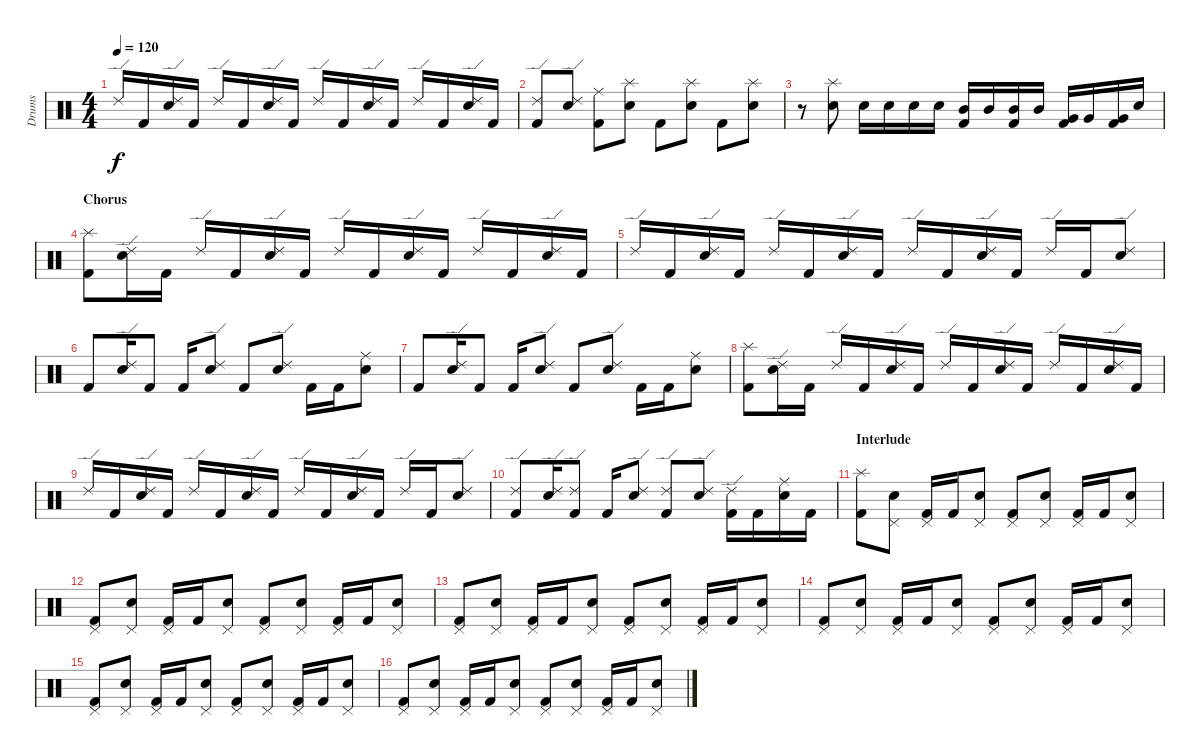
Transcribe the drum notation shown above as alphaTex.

\track ("Drums" "Drums") {instrument percussion}
\staff {score}
\articulation defaults
\ts (4 4)
\tempo 120
\clef neutral
\ks c "Ride (edge) 2".16{dy f} "Kick (hit) 2".16
("Ride (edge) 2" "Electric Snare (hit)").16 "Kick (hit) 2".16 "Ride (edge) 2".16 "Kick (hit) 2".16 ("Ride (edge) 2" "Electric Snare (hit)").16 "Kick (hit) 2".16 "Ride (edge) 2".16 "Kick (hit) 2".16 ("Ride (edge) 2" "Electric Snare (hit)").16 "Kick (hit) 2".16 "Ride (edge) 2".16 "Kick (hit) 2".16 ("Ride (edge) 2" "Electric Snare (hit)").16 "Kick (hit) 2".16 |
("Ride (edge) 2" "Kick (hit) 2").8 ("Ride (edge) 2" "Electric Snare (hit)").8 ("Ride (middle)" "Kick (hit) 2").8 ("Splash (hit)" "Electric Snare (hit)").8 "Kick (hit) 2".8 ("Splash (hit)" "Electric Snare (hit)").8 "Kick (hit) 2".8 ("Splash (hit)" "Electric Snare (hit)").8 |
r.8 ("Splash (hit)" "Electric Snare (hit)").8 "Electric Snare (hit)".16 "Electric Snare (hit)".16 "Electric Snare (hit)".16 "Electric Snare (hit)".16 ("Mid Tom (hit)" "Kick (hit) 2").16 "Mid Tom (hit)".16 ("Mid Tom (hit)" "Kick (hit) 2").16 "Mid Tom (hit)".16 ("Very Low Tom (hit)" "Kick (hit) 2").16 "Very Low Tom (hit)".16 ("Very Low Tom (hit)" "Kick (hit) 2").16 "Electric Snare (hit)".16 |
\section ("" "Chorus")
("Splash (hit)" "Kick (hit) 2").8 ("Ride (edge) 2" "Electric Snare (hit)").16 "Kick (hit) 2".16 "Ride (edge) 2".16 "Kick (hit) 2".16 ("Ride (edge) 2" "Electric Snare (hit)").16 "Kick (hit) 2".16 "Ride (edge) 2".16 "Kick (hit) 2".16 ("Ride (edge) 2" "Electric Snare (hit)").16 "Kick (hit) 2".16 "Ride (edge) 2".16 "Kick (hit) 2".16 ("Ride (edge) 2" "Electric Snare (hit)").16 "Kick (hit) 2".16 |
"Ride (edge) 2".16 "Kick (hit) 2".16 ("Ride (edge) 2" "Electric Snare (hit)").16 "Kick (hit) 2".16 "Ride (edge) 2".16 "Kick (hit) 2".16 ("Ride (edge) 2" "Electric Snare (hit)").16 "Kick (hit) 2".16 "Ride (edge) 2".16 "Kick (hit) 2".16 ("Ride (edge) 2" "Electric Snare (hit)").16 "Kick (hit) 2".16 "Ride (edge) 2".16 "Kick (hit) 2".16 ("Ride (edge) 2" "Electric Snare (hit)").8 |
"Kick (hit) 2".8 ("Ride (edge) 2" "Electric Snare (hit)").16 "Kick (hit) 2".8 "Kick (hit) 2".16 ("Ride (edge) 2" "Electric Snare (hit)").8 "Kick (hit) 2".8 ("Ride (edge) 2" "Electric Snare (hit)").8 "Kick (hit) 2".16 "Kick (hit) 2".16 ("Ride (middle)" "Electric Snare (hit)").8 |
"Kick (hit) 2".8 ("Ride (edge) 2" "Electric Snare (hit)").16 "Kick (hit) 2".8 "Kick (hit) 2".16 ("Ride (edge) 2" "Electric Snare (hit)").8 "Kick (hit) 2".8 ("Ride (edge) 2" "Electric Snare (hit)").8 "Kick (hit) 2".16 "Kick (hit) 2".16 ("Ride (middle)" "Electric Snare (hit)").8 |
("Splash (hit)" "Kick (hit) 2").8 ("Ride (edge) 2" "Electric Snare (hit)").16 "Kick (hit) 2".16 "Ride (edge) 2".16 "Kick (hit) 2".16 ("Ride (edge) 2" "Electric Snare (hit)").16 "Kick (hit) 2".16 "Ride (edge) 2".16 "Kick (hit) 2".16 ("Ride (edge) 2" "Electric Snare (hit)").16 "Kick (hit) 2".16 "Ride (edge) 2".16 "Kick (hit) 2".16 ("Ride (edge) 2" "Electric Snare (hit)").16 "Kick (hit) 2".16 |
"Ride (edge) 2".16 "Kick (hit) 2".16 ("Ride (edge) 2" "Electric Snare (hit)").16 "Kick (hit) 2".16 "Ride (edge) 2".16 "Kick (hit) 2".16 ("Ride (edge) 2" "Electric Snare (hit)").16 "Kick (hit) 2".16 "Ride (edge) 2".16 "Kick (hit) 2".16 ("Ride (edge) 2" "Electric Snare (hit)").16 "Kick (hit) 2".16 "Ride (edge) 2".16 "Kick (hit) 2".16 ("Ride (edge) 2" "Electric Snare (hit)").8 |
("Ride (edge) 2" "Kick (hit) 2").8 ("Ride (edge) 2" "Electric Snare (hit)").16 ("Ride (edge) 2" "Kick (hit) 2").8 "Kick (hit) 2".16 ("Ride (edge) 2" "Electric Snare (hit)").8 ("Ride (edge) 2" "Kick (hit) 2").8 ("Ride (edge) 2" "Electric Snare (hit)").8 ("Ride (edge) 2" "Kick (hit) 2").16 "Kick (hit) 2".16 ("Ride (middle)" "Electric Snare (hit)").16 "Kick (hit) 2".16 |
\section ("" "Interlude")
("Splash (hit)" "Kick (hit) 2").8 ("Pedal Hi-Hat (hit)" "Electric Snare (hit)").8 ("Pedal Hi-Hat (hit)" "Kick (hit) 2").16 "Kick (hit) 2".16 ("Pedal Hi-Hat (hit)" "Electric Snare (hit)").8 ("Pedal Hi-Hat (hit)" "Kick (hit) 2").8 ("Pedal Hi-Hat (hit)" "Electric Snare (hit)").8 ("Pedal Hi-Hat (hit)" "Kick (hit) 2").16 "Kick (hit) 2".16 ("Pedal Hi-Hat (hit)" "Electric Snare (hit)").8 |
("Pedal Hi-Hat (hit)" "Kick (hit) 2").8 ("Pedal Hi-Hat (hit)" "Electric Snare (hit)").8 ("Pedal Hi-Hat (hit)" "Kick (hit) 2").16 "Kick (hit) 2".16 ("Pedal Hi-Hat (hit)" "Electric Snare (hit)").8 ("Pedal Hi-Hat (hit)" "Kick (hit) 2").8 ("Pedal Hi-Hat (hit)" "Electric Snare (hit)").8 ("Pedal Hi-Hat (hit)" "Kick (hit) 2").16 "Kick (hit) 2".16 ("Pedal Hi-Hat (hit)" "Electric Snare (hit)").8 |
("Pedal Hi-Hat (hit)" "Kick (hit) 2").8 ("Pedal Hi-Hat (hit)" "Electric Snare (hit)").8 ("Pedal Hi-Hat (hit)" "Kick (hit) 2").16 "Kick (hit) 2".16 ("Pedal Hi-Hat (hit)" "Electric Snare (hit)").8 ("Pedal Hi-Hat (hit)" "Kick (hit) 2").8 ("Pedal Hi-Hat (hit)" "Electric Snare (hit)").8 ("Pedal Hi-Hat (hit)" "Kick (hit) 2").16 "Kick (hit) 2".16 ("Pedal Hi-Hat (hit)" "Electric Snare (hit)").8 |
("Pedal Hi-Hat (hit)" "Kick (hit) 2").8 ("Pedal Hi-Hat (hit)" "Electric Snare (hit)").8 ("Pedal Hi-Hat (hit)" "Kick (hit) 2").16 "Kick (hit) 2".16 ("Pedal Hi-Hat (hit)" "Electric Snare (hit)").8 ("Pedal Hi-Hat (hit)" "Kick (hit) 2").8 ("Pedal Hi-Hat (hit)" "Electric Snare (hit)").8 ("Pedal Hi-Hat (hit)" "Kick (hit) 2").16 "Kick (hit) 2".16 ("Pedal Hi-Hat (hit)" "Electric Snare (hit)").8 |
("Pedal Hi-Hat (hit)" "Kick (hit) 2").8 ("Pedal Hi-Hat (hit)" "Electric Snare (hit)").8 ("Pedal Hi-Hat (hit)" "Kick (hit) 2").16 "Kick (hit) 2".16 ("Pedal Hi-Hat (hit)" "Electric Snare (hit)").8 ("Pedal Hi-Hat (hit)" "Kick (hit) 2").8 ("Pedal Hi-Hat (hit)" "Electric Snare (hit)").8 ("Pedal Hi-Hat (hit)" "Kick (hit) 2").16 "Kick (hit) 2".16 ("Pedal Hi-Hat (hit)" "Electric Snare (hit)").8 |
("Pedal Hi-Hat (hit)" "Kick (hit) 2").8 ("Pedal Hi-Hat (hit)" "Electric Snare (hit)").8 ("Pedal Hi-Hat (hit)" "Kick (hit) 2").16 "Kick (hit) 2".16 ("Pedal Hi-Hat (hit)" "Electric Snare (hit)").8 ("Pedal Hi-Hat (hit)" "Kick (hit) 2").8 ("Pedal Hi-Hat (hit)" "Electric Snare (hit)").8 ("Pedal Hi-Hat (hit)" "Kick (hit) 2").16 "Kick (hit) 2".16 ("Pedal Hi-Hat (hit)" "Electric Snare (hit)").8
